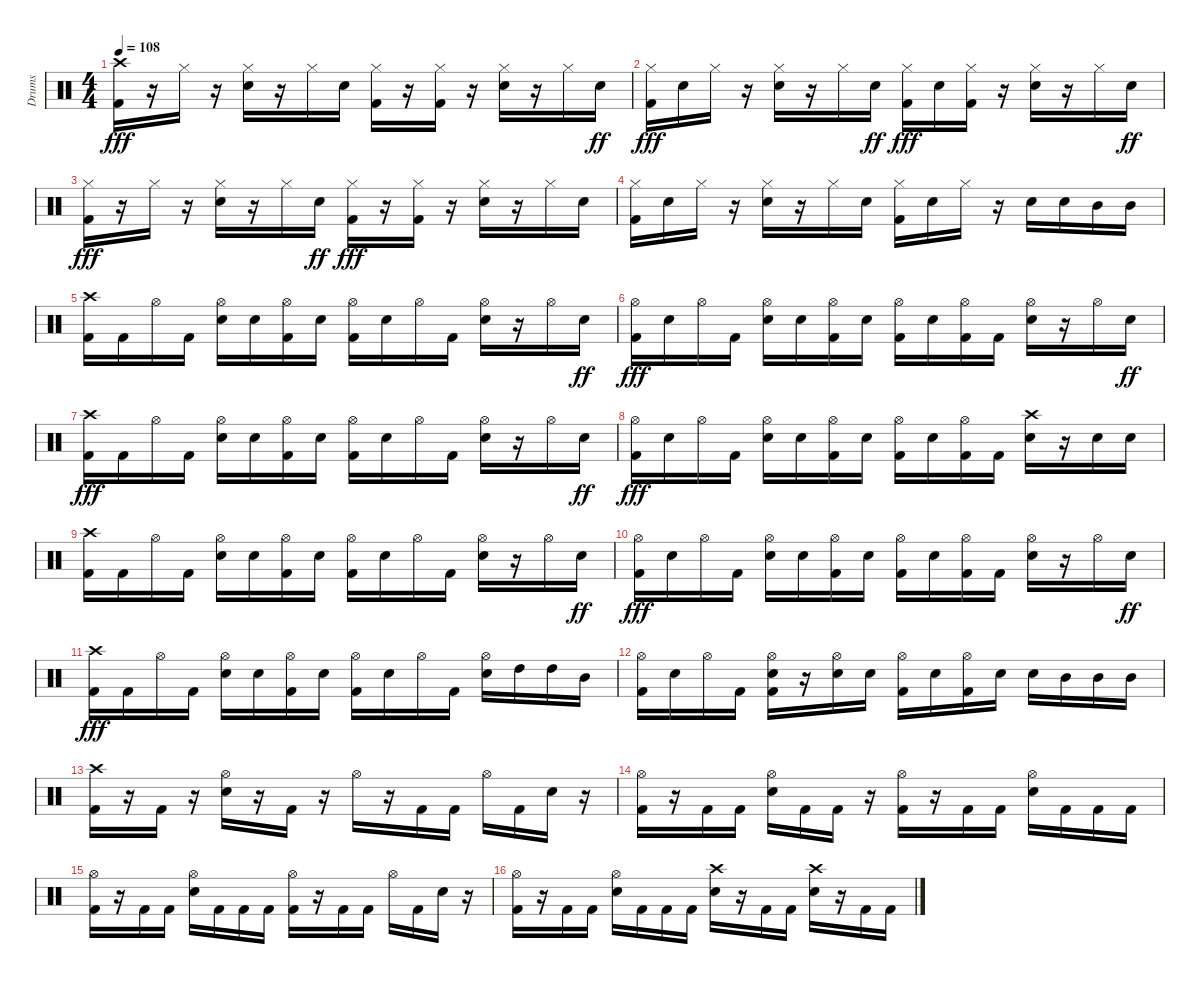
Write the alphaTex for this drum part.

\track ("Drums " "Drums ") {instrument percussion}
\staff {score}
\articulation defaults
\ts (4 4)
\tempo 108
\clef neutral
\ks c
("Kick (hit) 2" "Crash high (hit)").16{dy fff} r.16 "Hi-Hat (closed)".16 r.16 ("Snare (hit) 2" "Hi-Hat (closed)").16 r.16 "Hi-Hat (closed)".16 "Snare (hit) 2".16 ("Kick (hit) 2" "Hi-Hat (closed)").16 r.16 ("Kick (hit) 2" "Hi-Hat (closed)").16 r.16 ("Snare (hit) 2" "Hi-Hat (closed)").16 r.16 "Hi-Hat (closed)".16 "Snare (hit) 2".16{dy ff} |
("Kick (hit) 2" "Hi-Hat (closed)").16{dy fff} "Snare (hit) 2".16 "Hi-Hat (closed)".16 r.16 ("Snare (hit) 2" "Hi-Hat (closed)").16 r.16 "Hi-Hat (closed)".16 "Snare (hit) 2".16{dy ff} ("Kick (hit) 2" "Hi-Hat (closed)").16{dy fff} "Snare (hit) 2".16 ("Kick (hit) 2" "Hi-Hat (closed)").16 r.16 ("Snare (hit) 2" "Hi-Hat (closed)").16 r.16 "Hi-Hat (closed)".16 "Snare (hit) 2".16{dy ff} |
("Kick (hit) 2" "Hi-Hat (closed)").16{dy fff} r.16 "Hi-Hat (closed)".16 r.16 ("Snare (hit) 2" "Hi-Hat (closed)").16 r.16 "Hi-Hat (closed)".16 "Snare (hit) 2".16{dy ff} ("Kick (hit) 2" "Hi-Hat (closed)").16{dy fff} r.16 ("Kick (hit) 2" "Hi-Hat (closed)").16 r.16 ("Snare (hit) 2" "Hi-Hat (closed)").16 r.16 "Hi-Hat (closed)".16 "Snare (hit) 2".16 |
("Kick (hit) 2" "Hi-Hat (closed)").16 "Snare (hit) 2".16 "Hi-Hat (closed)".16 r.16 ("Snare (hit) 2" "Hi-Hat (closed)").16 r.16 "Hi-Hat (closed)".16 "Snare (hit) 2".16 ("Kick (hit) 2" "Hi-Hat (closed)").16 "Snare (hit) 2".16 "Hi-Hat (closed)".16 r.16 "Snare (hit) 2".16 "Snare (hit) 2".16 "Mid Tom (hit)".16 "Mid Tom (hit)".16 |
("Kick (hit) 2" "Crash high (hit)").16 "Kick (hit) 2".16 "Hi-Hat (open)".16 "Kick (hit) 2".16 ("Snare (hit) 2" "Hi-Hat (open)").16 "Snare (hit) 2".16 ("Kick (hit) 2" "Hi-Hat (open)").16 "Snare (hit) 2".16 ("Kick (hit) 2" "Hi-Hat (open)").16 "Snare (hit) 2".16 "Hi-Hat (open)".16 "Kick (hit) 2".16 ("Snare (hit) 2" "Hi-Hat (open)").16 r.16 "Hi-Hat (open)".16 "Snare (hit) 2".16{dy ff} |
("Kick (hit) 2" "Hi-Hat (open)").16{dy fff} "Snare (hit) 2".16 "Hi-Hat (open)".16 "Kick (hit) 2".16 ("Snare (hit) 2" "Hi-Hat (open)").16 "Snare (hit) 2".16 ("Kick (hit) 2" "Hi-Hat (open)").16 "Snare (hit) 2".16 ("Kick (hit) 2" "Hi-Hat (open)").16 "Snare (hit) 2".16 ("Kick (hit) 2" "Hi-Hat (open)").16 "Kick (hit) 2".16 ("Snare (hit) 2" "Hi-Hat (open)").16 r.16 "Hi-Hat (open)".16 "Snare (hit) 2".16{dy ff} |
("Kick (hit) 2" "Crash high (hit)").16{dy fff} "Kick (hit) 2".16 "Hi-Hat (open)".16 "Kick (hit) 2".16 ("Snare (hit) 2" "Hi-Hat (open)").16 "Snare (hit) 2".16 ("Kick (hit) 2" "Hi-Hat (open)").16 "Snare (hit) 2".16 ("Kick (hit) 2" "Hi-Hat (open)").16 "Snare (hit) 2".16 "Hi-Hat (open)".16 "Kick (hit) 2".16 ("Snare (hit) 2" "Hi-Hat (open)").16 r.16 "Hi-Hat (open)".16 "Snare (hit) 2".16{dy ff} |
("Kick (hit) 2" "Hi-Hat (open)").16{dy fff} "Snare (hit) 2".16 "Hi-Hat (open)".16 "Kick (hit) 2".16 ("Snare (hit) 2" "Hi-Hat (open)").16 "Snare (hit) 2".16 ("Kick (hit) 2" "Hi-Hat (open)").16 "Snare (hit) 2".16 ("Kick (hit) 2" "Hi-Hat (open)").16 "Snare (hit) 2".16 ("Kick (hit) 2" "Hi-Hat (open)").16 "Kick (hit) 2".16 ("Snare (hit) 2" "Crash high (hit)").16 r.16 "Snare (hit) 2".16 "Snare (hit) 2".16 |
("Kick (hit) 2" "Crash high (hit)").16 "Kick (hit) 2".16 "Hi-Hat (open)".16 "Kick (hit) 2".16 ("Snare (hit) 2" "Hi-Hat (open)").16 "Snare (hit) 2".16 ("Kick (hit) 2" "Hi-Hat (open)").16 "Snare (hit) 2".16 ("Kick (hit) 2" "Hi-Hat (open)").16 "Snare (hit) 2".16 "Hi-Hat (open)".16 "Kick (hit) 2".16 ("Snare (hit) 2" "Hi-Hat (open)").16 r.16 "Hi-Hat (open)".16 "Snare (hit) 2".16{dy ff} |
("Kick (hit) 2" "Hi-Hat (open)").16{dy fff} "Snare (hit) 2".16 "Hi-Hat (open)".16 "Kick (hit) 2".16 ("Snare (hit) 2" "Hi-Hat (open)").16 "Snare (hit) 2".16 ("Kick (hit) 2" "Hi-Hat (open)").16 "Snare (hit) 2".16 ("Kick (hit) 2" "Hi-Hat (open)").16 "Snare (hit) 2".16 ("Kick (hit) 2" "Hi-Hat (open)").16 "Kick (hit) 2".16 ("Snare (hit) 2" "Hi-Hat (open)").16 r.16 "Hi-Hat (open)".16 "Snare (hit) 2".16{dy ff} |
("Kick (hit) 2" "Crash high (hit)").16{dy fff} "Kick (hit) 2".16 "Hi-Hat (open)".16 "Kick (hit) 2".16 ("Snare (hit) 2" "Hi-Hat (open)").16 "Snare (hit) 2".16 ("Kick (hit) 2" "Hi-Hat (open)").16 "Snare (hit) 2".16 ("Kick (hit) 2" "Hi-Hat (open)").16 "Snare (hit) 2".16 "Hi-Hat (open)".16 "Kick (hit) 2".16 ("Snare (hit) 2" "Hi-Hat (open)").16 "High Tom (hit)".16 "High Tom (hit)".16 "Mid Tom (hit)".16 |
("Kick (hit) 2" "Hi-Hat (open)").16 "Snare (hit) 2".16 "Hi-Hat (open)".16 "Kick (hit) 2".16 ("Kick (hit) 2" "Snare (hit) 2" "Hi-Hat (open)").16 r.16 ("Snare (hit) 2" "Hi-Hat (open)").16 "Snare (hit) 2".16 ("Kick (hit) 2" "Hi-Hat (open)").16 "Snare (hit) 2".16 ("Kick (hit) 2" "Hi-Hat (open)").16 "Snare (hit) 2".16 "Snare (hit) 2".16 "Mid Tom (hit)".16 "Mid Tom (hit)".16 "Mid Tom (hit)".16 |
("Kick (hit) 2" "Crash high (hit)").16 r.16 "Kick (hit) 2".16 r.16 ("Snare (hit) 2" "Hi-Hat (open)").16 r.16 "Kick (hit) 2".16 r.16 "Hi-Hat (open)".16 r.16 "Kick (hit) 2".16 "Kick (hit) 2".16 "Hi-Hat (open)".16 "Kick (hit) 2".16 "Snare (hit) 2".16 r.16 |
("Kick (hit) 2" "Hi-Hat (open)").16 r.16 "Kick (hit) 2".16 "Kick (hit) 2".16 ("Snare (hit) 2" "Hi-Hat (open)").16 "Kick (hit) 2".16 "Kick (hit) 2".16 r.16 ("Kick (hit) 2" "Hi-Hat (open)").16 r.16 "Kick (hit) 2".16 "Kick (hit) 2".16 ("Snare (hit) 2" "Hi-Hat (open)").16 "Kick (hit) 2".16 "Kick (hit) 2".16 "Kick (hit) 2".16 |
("Kick (hit) 2" "Hi-Hat (open)").16 r.16 "Kick (hit) 2".16 "Kick (hit) 2".16 ("Snare (hit) 2" "Hi-Hat (open)").16 "Kick (hit) 2".16 "Kick (hit) 2".16 "Kick (hit) 2".16 ("Kick (hit) 2" "Hi-Hat (open)").16 r.16 "Kick (hit) 2".16 "Kick (hit) 2".16 "Hi-Hat (open)".16 "Kick (hit) 2".16 "Snare (hit) 2".16 r.16 |
("Kick (hit) 2" "Hi-Hat (open)").16 r.16 "Kick (hit) 2".16 "Kick (hit) 2".16 ("Snare (hit) 2" "Hi-Hat (open)").16 "Kick (hit) 2".16 "Kick (hit) 2".16 "Kick (hit) 2".16 ("Snare (hit) 2" "Crash high (hit)").16 r.16 "Kick (hit) 2".16 "Kick (hit) 2".16 ("Snare (hit) 2" "Crash high (hit)").16 r.16 "Kick (hit) 2".16 "Kick (hit) 2".16
